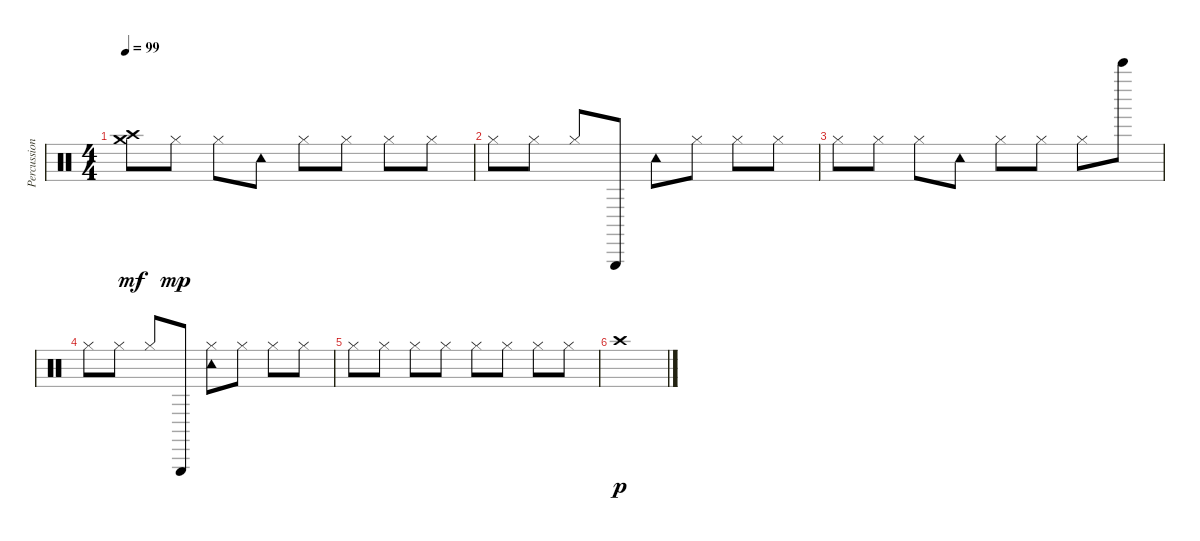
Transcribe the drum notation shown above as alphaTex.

\track ("Percussion" "Percussion") {instrument percussion}
\staff {score}
\articulation defaults
\ts (4 4)
\tempo 99
\clef neutral
\ks c
("Crash medium (hit)" "Crash high (hit)").8{dy mf} "Hi-Hat (closed)".8{dy mp} "Hi-Hat (closed)".8 "Tambourine (hit)".8 "Hi-Hat (closed)".8 "Hi-Hat (closed)".8 "Hi-Hat (closed)".8 "Hi-Hat (closed)".8 |
"Hi-Hat (closed)".8 "Hi-Hat (closed)".8 "Hi-Hat (closed)".8 "Triangle (hit)".8 "Tambourine (hit)".8 "Hi-Hat (closed)".8 "Hi-Hat (closed)".8 "Hi-Hat (closed)".8 |
"Hi-Hat (closed)".8 "Hi-Hat (closed)".8 "Hi-Hat (closed)".8 "Tambourine (hit)".8 "Hi-Hat (closed)".8 "Hi-Hat (closed)".8 "Hi-Hat (closed)".8 "Bell Tree (hit)".8 |
"Hi-Hat (closed)".8 "Hi-Hat (closed)".8 "Hi-Hat (closed)".8 "Triangle (hit)".8 ("Tambourine (hit)" "Hi-Hat (closed)").8 "Hi-Hat (closed)".8 "Hi-Hat (closed)".8 "Hi-Hat (closed)".8 |
"Hi-Hat (closed)".8 "Hi-Hat (closed)".8 "Hi-Hat (closed)".8 "Hi-Hat (closed)".8 "Hi-Hat (closed)".8 "Hi-Hat (closed)".8 "Hi-Hat (closed)".8 "Hi-Hat (closed)".8 |
"Crash high (hit)".1{dy p}
